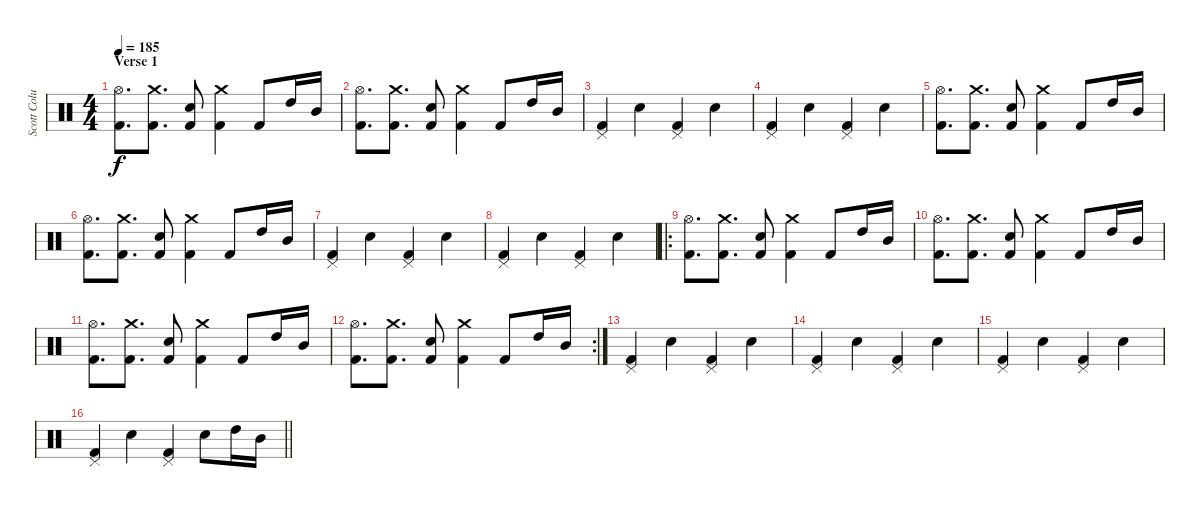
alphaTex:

\track ("Scott Columbus" "Scott Colu") {instrument percussion}
\staff {score}
\articulation defaults
\ts (4 4)
\section ("" "Verse 1")
\tempo 185
\clef neutral
\ks c
("Hi-Hat (open)" "Kick (hit) 2").8{d dy f} ("Crash medium (hit)" "Kick (hit) 2").8{d} ("Snare (hit) 2" "Kick (hit) 2").8 ("Crash medium (hit)" "Kick (hit) 2").4 "Kick (hit) 2".8 "High Tom (hit)".16 "Mid Tom (hit)".16 |
("Hi-Hat (open)" "Kick (hit) 2").8{d} ("Crash medium (hit)" "Kick (hit) 2").8{d} ("Snare (hit) 2" "Kick (hit) 2").8 ("Crash medium (hit)" "Kick (hit) 2").4 "Kick (hit) 2".8 "High Tom (hit)".16 "Mid Tom (hit)".16 |
("Pedal Hi-Hat (hit)" "Kick (hit) 2").4 "Snare (hit) 2".4 ("Pedal Hi-Hat (hit)" "Kick (hit) 2").4 "Snare (hit) 2".4 |
("Pedal Hi-Hat (hit)" "Kick (hit) 2").4 "Snare (hit) 2".4 ("Pedal Hi-Hat (hit)" "Kick (hit) 2").4 "Snare (hit) 2".4 |
("Hi-Hat (open)" "Kick (hit) 2").8{d} ("Crash medium (hit)" "Kick (hit) 2").8{d} ("Snare (hit) 2" "Kick (hit) 2").8 ("Crash medium (hit)" "Kick (hit) 2").4 "Kick (hit) 2".8 "High Tom (hit)".16 "Mid Tom (hit)".16 |
("Hi-Hat (open)" "Kick (hit) 2").8{d} ("Crash medium (hit)" "Kick (hit) 2").8{d} ("Snare (hit) 2" "Kick (hit) 2").8 ("Crash medium (hit)" "Kick (hit) 2").4 "Kick (hit) 2".8 "High Tom (hit)".16 "Mid Tom (hit)".16 |
("Pedal Hi-Hat (hit)" "Kick (hit) 2").4 "Snare (hit) 2".4 ("Pedal Hi-Hat (hit)" "Kick (hit) 2").4 "Snare (hit) 2".4 |
("Pedal Hi-Hat (hit)" "Kick (hit) 2").4 "Snare (hit) 2".4 ("Pedal Hi-Hat (hit)" "Kick (hit) 2").4 "Snare (hit) 2".4 |
\ro
("Hi-Hat (open)" "Kick (hit) 2").8{d} ("Crash medium (hit)" "Kick (hit) 2").8{d} ("Snare (hit) 2" "Kick (hit) 2").8 ("Crash medium (hit)" "Kick (hit) 2").4 "Kick (hit) 2".8 "High Tom (hit)".16 "Mid Tom (hit)".16 |
("Hi-Hat (open)" "Kick (hit) 2").8{d} ("Crash medium (hit)" "Kick (hit) 2").8{d} ("Snare (hit) 2" "Kick (hit) 2").8 ("Crash medium (hit)" "Kick (hit) 2").4 "Kick (hit) 2".8 "High Tom (hit)".16 "Mid Tom (hit)".16 |
("Hi-Hat (open)" "Kick (hit) 2").8{d} ("Crash medium (hit)" "Kick (hit) 2").8{d} ("Snare (hit) 2" "Kick (hit) 2").8 ("Crash medium (hit)" "Kick (hit) 2").4 "Kick (hit) 2".8 "High Tom (hit)".16 "Mid Tom (hit)".16 |
\rc 2
("Hi-Hat (open)" "Kick (hit) 2").8{d} ("Crash medium (hit)" "Kick (hit) 2").8{d} ("Snare (hit) 2" "Kick (hit) 2").8 ("Crash medium (hit)" "Kick (hit) 2").4 "Kick (hit) 2".8 "High Tom (hit)".16 "Mid Tom (hit)".16 |
("Pedal Hi-Hat (hit)" "Kick (hit) 2").4 "Snare (hit) 2".4 ("Pedal Hi-Hat (hit)" "Kick (hit) 2").4 "Snare (hit) 2".4 |
("Pedal Hi-Hat (hit)" "Kick (hit) 2").4 "Snare (hit) 2".4 ("Pedal Hi-Hat (hit)" "Kick (hit) 2").4 "Snare (hit) 2".4 |
("Pedal Hi-Hat (hit)" "Kick (hit) 2").4 "Snare (hit) 2".4 ("Pedal Hi-Hat (hit)" "Kick (hit) 2").4 "Snare (hit) 2".4 |
\barLineRight lightlight
("Pedal Hi-Hat (hit)" "Kick (hit) 2").4 "Snare (hit) 2".4 ("Pedal Hi-Hat (hit)" "Kick (hit) 2").4 "Snare (hit) 2".8 "High Tom (hit)".16 "Mid Tom (hit)".16
